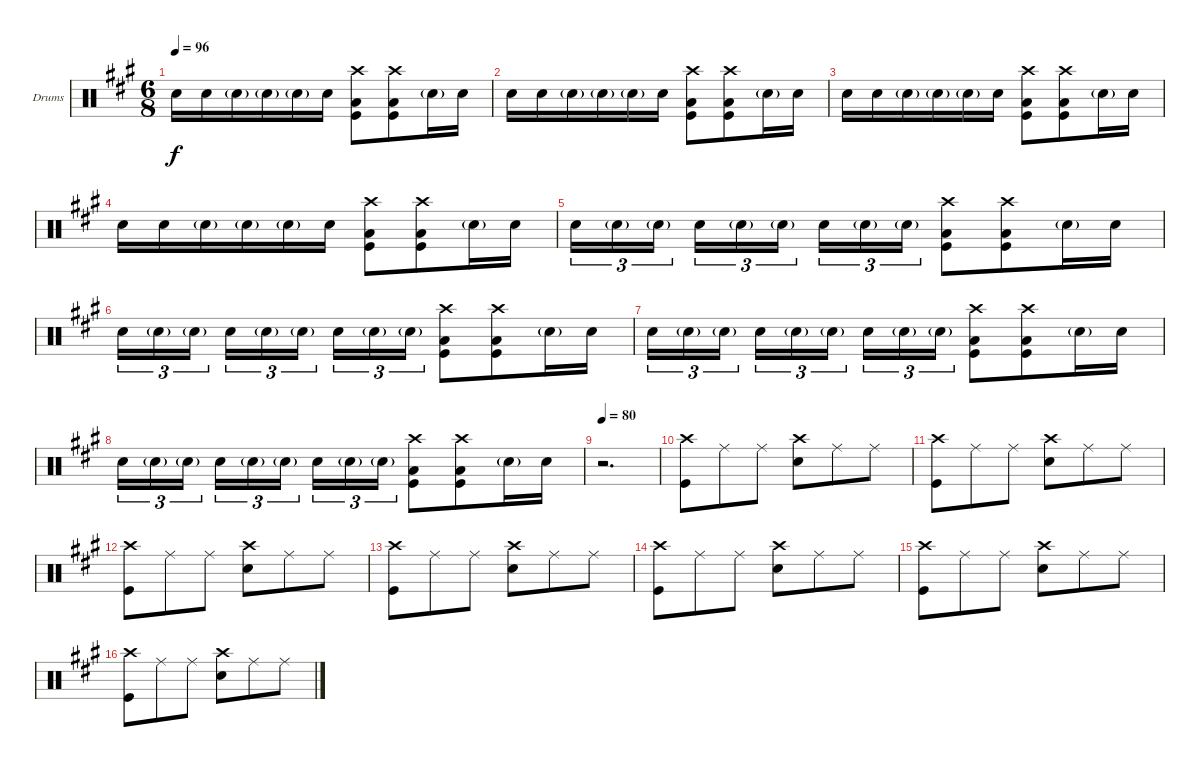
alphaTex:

\bracketExtendMode groupsimilarinstruments
\firstSystemTrackNameOrientation horizontal
\otherSystemsTrackNameOrientation horizontal
\track ("Drumkit" "Drums") {instrument percussion}
\staff {score}
\articulation defaults
\ts (6 8)
\tempo 96
\clef neutral
\ks a "Snare (hit) 2".16{dy f} "Snare (hit) 2".16 "Snare (hit) 2"{g}.16 "Snare (hit) 2"{g}.16 "Snare (hit) 2"{g}.16 "Snare (hit) 2".16
("Crash high (hit)" "Kick (hit)" "Low Tom (hit)").8 ("Crash high (hit)" "Kick (hit)" "Low Tom (hit)").8 "Snare (hit) 2"{g}.16 "Snare (hit) 2".16 |
"Snare (hit) 2".16 "Snare (hit) 2".16 "Snare (hit) 2"{g}.16 "Snare (hit) 2"{g}.16 "Snare (hit) 2"{g}.16 "Snare (hit) 2".16 ("Crash high (hit)" "Kick (hit)" "Low Tom (hit)").8 ("Crash high (hit)" "Kick (hit)" "Low Tom (hit)").8 "Snare (hit) 2"{g}.16 "Snare (hit) 2".16 |
"Snare (hit) 2".16 "Snare (hit) 2".16 "Snare (hit) 2"{g}.16 "Snare (hit) 2"{g}.16 "Snare (hit) 2"{g}.16 "Snare (hit) 2".16 ("Crash high (hit)" "Kick (hit)" "Low Tom (hit)").8 ("Crash high (hit)" "Kick (hit)" "Low Tom (hit)").8 "Snare (hit) 2"{g}.16 "Snare (hit) 2".16 |
"Snare (hit) 2".16 "Snare (hit) 2".16 "Snare (hit) 2"{g}.16 "Snare (hit) 2"{g}.16 "Snare (hit) 2"{g}.16 "Snare (hit) 2".16 ("Crash high (hit)" "Kick (hit)" "Low Tom (hit)").8 ("Crash high (hit)" "Kick (hit)" "Low Tom (hit)").8 "Snare (hit) 2"{g}.16 "Snare (hit) 2".16 |
\scale
0.377049 "Snare (hit) 2".16{tu (3 2)} "Snare (hit) 2"{g}.16{tu (3 2)} "Snare (hit) 2"{g}.16{tu (3 2)} "Snare (hit) 2".16{tu (3 2)} "Snare (hit) 2"{g}.16{tu (3 2)} "Snare (hit) 2"{g}.16{tu (3 2)} "Snare (hit) 2".16{tu (3 2)} "Snare (hit) 2"{g}.16{tu (3 2)} "Snare (hit) 2"{g}.16{tu (3 2)} ("Crash high (hit)" "Kick (hit)" "Low Tom (hit)").8 ("Crash high (hit)" "Kick (hit)" "Low Tom (hit)").8 "Snare (hit) 2"{g}.16 "Snare (hit) 2".16 |
\scale
0.311475 "Snare (hit) 2".16{tu (3 2)} "Snare (hit) 2"{g}.16{tu (3 2)} "Snare (hit) 2"{g}.16{tu (3 2)} "Snare (hit) 2".16{tu (3 2)} "Snare (hit) 2"{g}.16{tu (3 2)} "Snare (hit) 2"{g}.16{tu (3 2)} "Snare (hit) 2".16{tu (3 2)} "Snare (hit) 2"{g}.16{tu (3 2)} "Snare (hit) 2"{g}.16{tu (3 2)} ("Crash high (hit)" "Kick (hit)" "Low Tom (hit)").8 ("Crash high (hit)" "Kick (hit)" "Low Tom (hit)").8 "Snare (hit) 2"{g}.16 "Snare (hit) 2".16 |
\scale
0.322034 "Snare (hit) 2".16{tu (3 2)} "Snare (hit) 2"{g}.16{tu (3 2)} "Snare (hit) 2"{g}.16{tu (3 2)} "Snare (hit) 2".16{tu (3 2)} "Snare (hit) 2"{g}.16{tu (3 2)} "Snare (hit) 2"{g}.16{tu (3 2)} "Snare (hit) 2".16{tu (3 2)} "Snare (hit) 2"{g}.16{tu (3 2)} "Snare (hit) 2"{g}.16{tu (3 2)} ("Crash high (hit)" "Kick (hit)" "Low Tom (hit)").8 ("Crash high (hit)" "Kick (hit)" "Low Tom (hit)").8 "Snare (hit) 2"{g}.16 "Snare (hit) 2".16 |
\scale
0.355932 "Snare (hit) 2".16{tu (3 2)} "Snare (hit) 2"{g}.16{tu (3 2)} "Snare (hit) 2"{g}.16{tu (3 2)} "Snare (hit) 2".16{tu (3 2)} "Snare (hit) 2"{g}.16{tu (3 2)} "Snare (hit) 2"{g}.16{tu (3 2)} "Snare (hit) 2".16{tu (3 2)} "Snare (hit) 2"{g}.16{tu (3 2)} "Snare (hit) 2"{g}.16{tu (3 2)} ("Crash high (hit)" "Kick (hit)" "Low Tom (hit)").8 ("Crash high (hit)" "Kick (hit)" "Low Tom (hit)").8 "Snare (hit) 2"{g}.16 "Snare (hit) 2".16 |
\tempo 80
\scale
0.322034 r.2{d} |
\scale
0.333333 ("Crash high (hit)" "Kick (hit)").8 "Ride (middle)".8 "Ride (middle)".8 ("Crash high (hit)" "Snare (hit) 2").8 "Ride (middle)".8 "Ride (middle)".8 |
\scale
0.333333 ("Crash high (hit)" "Kick (hit)").8 "Ride (middle)".8 "Ride (middle)".8 ("Crash high (hit)" "Snare (hit) 2").8 "Ride (middle)".8 "Ride (middle)".8 |
\scale
0.333333 ("Crash high (hit)" "Kick (hit)").8 "Ride (middle)".8 "Ride (middle)".8 ("Crash high (hit)" "Snare (hit) 2").8 "Ride (middle)".8 "Ride (middle)".8 |
\scale
0.333333 ("Crash high (hit)" "Kick (hit)").8 "Ride (middle)".8 "Ride (middle)".8 ("Crash high (hit)" "Snare (hit) 2").8 "Ride (middle)".8 "Ride (middle)".8 |
\scale
0.333333 ("Crash high (hit)" "Kick (hit)").8 "Ride (middle)".8 "Ride (middle)".8 ("Crash high (hit)" "Snare (hit) 2").8 "Ride (middle)".8 "Ride (middle)".8 |
\scale
0.333333 ("Crash high (hit)" "Kick (hit)").8 "Ride (middle)".8 "Ride (middle)".8 ("Crash high (hit)" "Snare (hit) 2").8 "Ride (middle)".8 "Ride (middle)".8 |
\scale
0.333333 ("Crash high (hit)" "Kick (hit)").8 "Ride (middle)".8 "Ride (middle)".8 ("Crash high (hit)" "Snare (hit) 2").8 "Ride (middle)".8 "Ride (middle)".8
